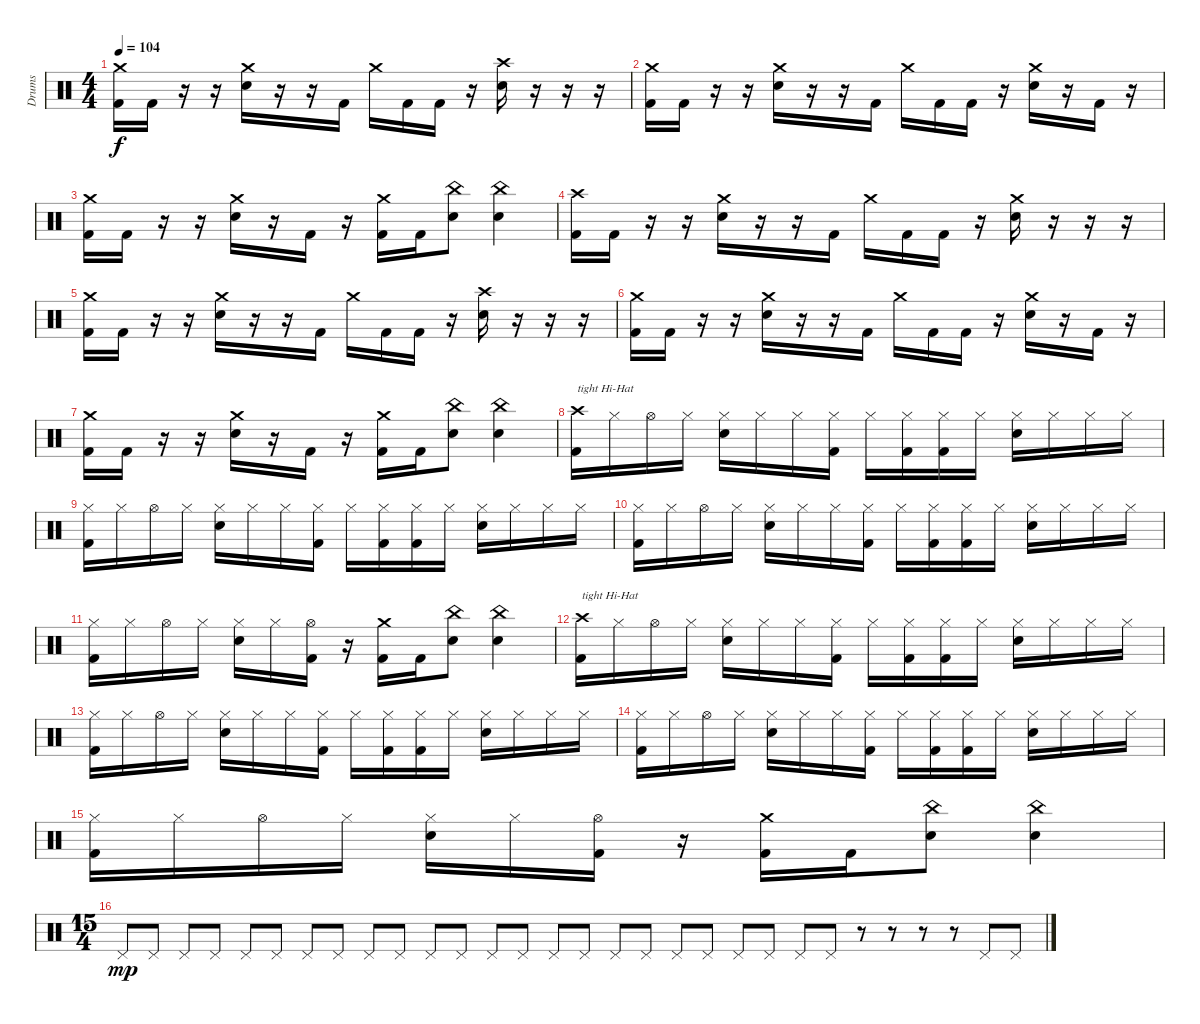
\track ("Drums" "Drums") {instrument percussion}
\staff {score}
\articulation defaults
\ts (4 4)
\tempo 104
\clef neutral
\ks c
("Crash medium (hit)" "Kick (hit) 2").16{dy f} "Kick (hit) 2".16 r.16 r.16 ("Crash medium (hit)" "Electric Snare (hit)").16 r.16 r.16 "Kick (hit) 2".16 "Crash medium (hit)".16 "Kick (hit) 2".16 "Kick (hit) 2".16 r.16 ("Crash high (hit)" "Electric Snare (hit)").16 r.16 r.16 r.16 |
("Crash medium (hit)" "Kick (hit) 2").16 "Kick (hit) 2".16 r.16 r.16 ("Crash medium (hit)" "Electric Snare (hit)").16 r.16 r.16 "Kick (hit) 2".16 "Crash medium (hit)".16 "Kick (hit) 2".16 "Kick (hit) 2".16 r.16 ("Crash medium (hit)" "Electric Snare (hit)").16 r.16 "Kick (hit) 2".16 r.16 |
("Crash medium (hit)" "Kick (hit) 2").16 "Kick (hit) 2".16 r.16 r.16 ("Crash medium (hit)" "Electric Snare (hit)").16 r.16 "Kick (hit) 2".16 r.16 ("Crash medium (hit)" "Kick (hit) 2").16 "Kick (hit) 2".16 ("China (hit)" "Electric Snare (hit)").8 ("China (hit)" "Electric Snare (hit)").4 |
("Crash high (hit)" "Kick (hit) 2").16 "Kick (hit) 2".16 r.16 r.16 ("Crash medium (hit)" "Electric Snare (hit)").16 r.16 r.16 "Kick (hit) 2".16 "Crash medium (hit)".16 "Kick (hit) 2".16 "Kick (hit) 2".16 r.16 ("Crash medium (hit)" "Electric Snare (hit)").16 r.16 r.16 r.16 |
("Crash medium (hit)" "Kick (hit) 2").16 "Kick (hit) 2".16 r.16 r.16 ("Crash medium (hit)" "Electric Snare (hit)").16 r.16 r.16 "Kick (hit) 2".16 "Crash medium (hit)".16 "Kick (hit) 2".16 "Kick (hit) 2".16 r.16 ("Crash high (hit)" "Electric Snare (hit)").16 r.16 r.16 r.16 |
("Crash medium (hit)" "Kick (hit) 2").16 "Kick (hit) 2".16 r.16 r.16 ("Crash medium (hit)" "Electric Snare (hit)").16 r.16 r.16 "Kick (hit) 2".16 "Crash medium (hit)".16 "Kick (hit) 2".16 "Kick (hit) 2".16 r.16 ("Crash medium (hit)" "Electric Snare (hit)").16 r.16 "Kick (hit) 2".16 r.16 |
("Crash medium (hit)" "Kick (hit) 2").16 "Kick (hit) 2".16 r.16 r.16 ("Crash medium (hit)" "Electric Snare (hit)").16 r.16 "Kick (hit) 2".16 r.16 ("Crash medium (hit)" "Kick (hit) 2").16 "Kick (hit) 2".16 ("China (hit)" "Electric Snare (hit)").8 ("China (hit)" "Electric Snare (hit)").4 |
("Crash high (hit)" "Kick (hit) 2").16{txt "tight Hi-Hat"} "Hi-Hat (closed)".16 "Hi-Hat (open)".16 "Hi-Hat (closed)".16 ("Hi-Hat (closed)" "Electric Snare (hit)").16 "Hi-Hat (closed)".16 "Hi-Hat (closed)".16 ("Hi-Hat (closed)" "Kick (hit) 2").16 "Hi-Hat (closed)".16 ("Hi-Hat (closed)" "Kick (hit) 2").16 ("Hi-Hat (closed)" "Kick (hit) 2").16 "Hi-Hat (closed)".16 ("Hi-Hat (closed)" "Electric Snare (hit)").16 "Hi-Hat (closed)".16 "Hi-Hat (closed)".16 "Hi-Hat (closed)".16 |
("Hi-Hat (closed)" "Kick (hit) 2").16 "Hi-Hat (closed)".16 "Hi-Hat (open)".16 "Hi-Hat (closed)".16 ("Hi-Hat (closed)" "Electric Snare (hit)").16 "Hi-Hat (closed)".16 "Hi-Hat (closed)".16 ("Hi-Hat (closed)" "Kick (hit) 2").16 "Hi-Hat (closed)".16 ("Hi-Hat (closed)" "Kick (hit) 2").16 ("Hi-Hat (closed)" "Kick (hit) 2").16 "Hi-Hat (closed)".16 ("Hi-Hat (closed)" "Electric Snare (hit)").16 "Hi-Hat (closed)".16 "Hi-Hat (closed)".16 "Hi-Hat (closed)".16 |
("Hi-Hat (closed)" "Kick (hit) 2").16 "Hi-Hat (closed)".16 "Hi-Hat (open)".16 "Hi-Hat (closed)".16 ("Hi-Hat (closed)" "Electric Snare (hit)").16 "Hi-Hat (closed)".16 "Hi-Hat (closed)".16 ("Hi-Hat (closed)" "Kick (hit) 2").16 "Hi-Hat (closed)".16 ("Hi-Hat (closed)" "Kick (hit) 2").16 ("Hi-Hat (closed)" "Kick (hit) 2").16 "Hi-Hat (closed)".16 ("Hi-Hat (closed)" "Electric Snare (hit)").16 "Hi-Hat (closed)".16 "Hi-Hat (closed)".16 "Hi-Hat (closed)".16 |
("Hi-Hat (closed)" "Kick (hit) 2").16 "Hi-Hat (closed)".16 "Hi-Hat (open)".16 "Hi-Hat (closed)".16 ("Hi-Hat (closed)" "Electric Snare (hit)").16 "Hi-Hat (closed)".16 ("Hi-Hat (open)" "Kick (hit) 2").16 r.16 ("Crash medium (hit)" "Kick (hit) 2").16 "Kick (hit) 2".16 ("China (hit)" "Electric Snare (hit)").8 ("China (hit)" "Electric Snare (hit)").4 |
("Crash high (hit)" "Kick (hit) 2").16{txt "tight Hi-Hat"} "Hi-Hat (closed)".16 "Hi-Hat (open)".16 "Hi-Hat (closed)".16 ("Hi-Hat (closed)" "Electric Snare (hit)").16 "Hi-Hat (closed)".16 "Hi-Hat (closed)".16 ("Hi-Hat (closed)" "Kick (hit) 2").16 "Hi-Hat (closed)".16 ("Hi-Hat (closed)" "Kick (hit) 2").16 ("Hi-Hat (closed)" "Kick (hit) 2").16 "Hi-Hat (closed)".16 ("Hi-Hat (closed)" "Electric Snare (hit)").16 "Hi-Hat (closed)".16 "Hi-Hat (closed)".16 "Hi-Hat (closed)".16 |
("Hi-Hat (closed)" "Kick (hit) 2").16 "Hi-Hat (closed)".16 "Hi-Hat (open)".16 "Hi-Hat (closed)".16 ("Hi-Hat (closed)" "Electric Snare (hit)").16 "Hi-Hat (closed)".16 "Hi-Hat (closed)".16 ("Hi-Hat (closed)" "Kick (hit) 2").16 "Hi-Hat (closed)".16 ("Hi-Hat (closed)" "Kick (hit) 2").16 ("Hi-Hat (closed)" "Kick (hit) 2").16 "Hi-Hat (closed)".16 ("Hi-Hat (closed)" "Electric Snare (hit)").16 "Hi-Hat (closed)".16 "Hi-Hat (closed)".16 "Hi-Hat (closed)".16 |
("Hi-Hat (closed)" "Kick (hit) 2").16 "Hi-Hat (closed)".16 "Hi-Hat (open)".16 "Hi-Hat (closed)".16 ("Hi-Hat (closed)" "Electric Snare (hit)").16 "Hi-Hat (closed)".16 "Hi-Hat (closed)".16 ("Hi-Hat (closed)" "Kick (hit) 2").16 "Hi-Hat (closed)".16 ("Hi-Hat (closed)" "Kick (hit) 2").16 ("Hi-Hat (closed)" "Kick (hit) 2").16 "Hi-Hat (closed)".16 ("Hi-Hat (closed)" "Electric Snare (hit)").16 "Hi-Hat (closed)".16 "Hi-Hat (closed)".16 "Hi-Hat (closed)".16 |
("Hi-Hat (closed)" "Kick (hit) 2").16 "Hi-Hat (closed)".16 "Hi-Hat (open)".16 "Hi-Hat (closed)".16 ("Hi-Hat (closed)" "Electric Snare (hit)").16 "Hi-Hat (closed)".16 ("Hi-Hat (open)" "Kick (hit) 2").16 r.16 ("Crash medium (hit)" "Kick (hit) 2").16 "Kick (hit) 2".16 ("China (hit)" "Electric Snare (hit)").8 ("China (hit)" "Electric Snare (hit)").4 |
\ts (15 4)
"Pedal Hi-Hat (hit)".8{dy mp} "Pedal Hi-Hat (hit)".8 "Pedal Hi-Hat (hit)".8 "Pedal Hi-Hat (hit)".8 "Pedal Hi-Hat (hit)".8 "Pedal Hi-Hat (hit)".8 "Pedal Hi-Hat (hit)".8 "Pedal Hi-Hat (hit)".8 "Pedal Hi-Hat (hit)".8 "Pedal Hi-Hat (hit)".8 "Pedal Hi-Hat (hit)".8 "Pedal Hi-Hat (hit)".8 "Pedal Hi-Hat (hit)".8 "Pedal Hi-Hat (hit)".8 "Pedal Hi-Hat (hit)".8 "Pedal Hi-Hat (hit)".8 "Pedal Hi-Hat (hit)".8 "Pedal Hi-Hat (hit)".8 "Pedal Hi-Hat (hit)".8 "Pedal Hi-Hat (hit)".8 "Pedal Hi-Hat (hit)".8 "Pedal Hi-Hat (hit)".8 "Pedal Hi-Hat (hit)".8 "Pedal Hi-Hat (hit)".8 r.8 r.8 r.8 r.8 "Pedal Hi-Hat (hit)".8 "Pedal Hi-Hat (hit)".8
